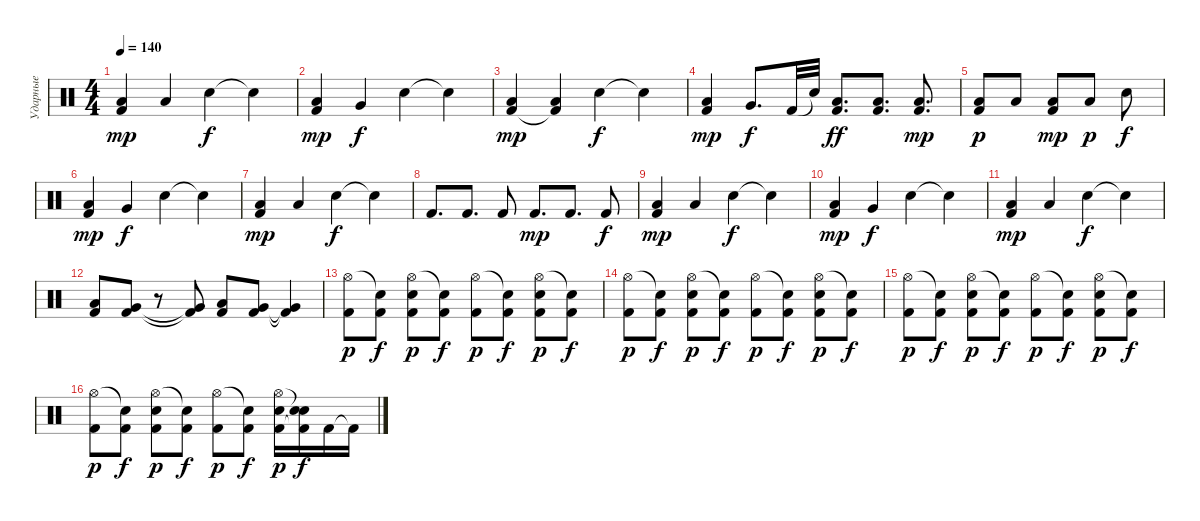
\track ("Ударные" "Ударные") {instrument percussion}
\staff {score}
\articulation defaults
\ts (4 4)
\tempo 140
\clef neutral
\ks c
("Low Floor Tom (hit)" "Kick (hit) 2").4{dy mp} "Low Tom (hit)".4 "Electric Snare (hit)".4{dy f} "Electric Snare (hit)"{t}.4 |
("Low Floor Tom (hit)" "Kick (hit) 2").4{dy mp} "Very Low Tom (hit)".4{dy f} "Electric Snare (hit)".4 "Electric Snare (hit)"{t}.4 |
("Low Floor Tom (hit)" "Kick (hit) 2").4{dy mp} ("Low Tom (hit)" "Kick (hit) 2"{t}).4 "Electric Snare (hit)".4{dy f} "Electric Snare (hit)"{t}.4 |
("Low Floor Tom (hit)" "Kick (hit) 2").4{dy mp} "Very Low Tom (hit)".8{d dy f} "Kick (hit) 2".32 "Electric Snare (hit)"{t}.32 ("Low Floor Tom (hit)" "Kick (hit) 2").8{d dy ff} ("Low Floor Tom (hit)" "Kick (hit) 2").8{d} ("Low Floor Tom (hit)" "Kick (hit) 2").8{d dy mp} |
("Low Floor Tom (hit)" "Kick (hit) 2").8{dy p} "Low Tom (hit)".8 ("Kick (hit) 2" "Low Floor Tom (hit)").8{dy mp} "Low Tom (hit)".8{dy p} "Electric Snare (hit)".8{dy f} |
("Low Floor Tom (hit)" "Kick (hit) 2").4{dy mp} "Very Low Tom (hit)".4{dy f} "Electric Snare (hit)".4 "Electric Snare (hit)"{t}.4 |
("Low Floor Tom (hit)" "Kick (hit) 2").4{dy mp} "Low Tom (hit)".4 "Electric Snare (hit)".4{dy f} "Electric Snare (hit)"{t}.4 |
"Kick (hit) 2".8{d} "Kick (hit) 2".8{d} "Kick (hit) 2".8 "Kick (hit) 2".8{d dy mp} "Kick (hit) 2".8{d} "Kick (hit) 2".8{dy f} |
("Low Floor Tom (hit)" "Kick (hit) 2").4{dy mp} "Low Tom (hit)".4 "Electric Snare (hit)".4{dy f} "Electric Snare (hit)"{t}.4 |
("Low Floor Tom (hit)" "Kick (hit) 2").4{dy mp} "Very Low Tom (hit)".4{dy f} "Electric Snare (hit)".4 "Electric Snare (hit)"{t}.4 |
("Low Floor Tom (hit)" "Kick (hit) 2").4{dy mp} "Low Tom (hit)".4 "Electric Snare (hit)".4{dy f} "Electric Snare (hit)"{t}.4 |
("Low Floor Tom (hit)" "Kick (hit) 2").8 ("Very Low Tom (hit)" "Kick (hit) 2").8 r.8 ("Very Low Tom (hit)"{t} "Kick (hit) 2"{t}).8 ("Low Floor Tom (hit)" "Kick (hit) 2").8 ("Very Low Tom (hit)" "Kick (hit) 2").8 ("Very Low Tom (hit)"{t} "Kick (hit) 2"{t}).4 |
("Hi-Hat (open)" "Kick (hit) 2").8{dy p} ("Snare (hit)"{t} "Kick (hit) 2").8{dy f} ("Hi-Hat (open)" "Electric Snare (hit)" "Kick (hit) 2").8{dy p} ("Snare (hit)"{t} "Kick (hit) 2").8{dy f} ("Hi-Hat (open)" "Kick (hit) 2").8{dy p} ("Snare (hit)"{t} "Kick (hit) 2").8{dy f} ("Hi-Hat (open)" "Electric Snare (hit)" "Kick (hit) 2").8{dy p} ("Snare (hit)"{t} "Kick (hit) 2").8{dy f} |
("Hi-Hat (open)" "Kick (hit) 2").8{dy p} ("Snare (hit)"{t} "Kick (hit) 2").8{dy f} ("Hi-Hat (open)" "Electric Snare (hit)" "Kick (hit) 2").8{dy p} ("Snare (hit)"{t} "Kick (hit) 2").8{dy f} ("Hi-Hat (open)" "Kick (hit) 2").8{dy p} ("Snare (hit)"{t} "Kick (hit) 2").8{dy f} ("Hi-Hat (open)" "Electric Snare (hit)" "Kick (hit) 2").8{dy p} ("Snare (hit)"{t} "Kick (hit) 2").8{dy f} |
("Hi-Hat (open)" "Kick (hit) 2").8{dy p} ("Snare (hit)"{t} "Kick (hit) 2").8{dy f} ("Hi-Hat (open)" "Electric Snare (hit)" "Kick (hit) 2").8{dy p} ("Snare (hit)"{t} "Kick (hit) 2").8{dy f} ("Hi-Hat (open)" "Kick (hit) 2").8{dy p} ("Snare (hit)"{t} "Kick (hit) 2").8{dy f} ("Hi-Hat (open)" "Electric Snare (hit)" "Kick (hit) 2").8{dy p} ("Snare (hit)"{t} "Kick (hit) 2").8{dy f} |
("Hi-Hat (open)" "Kick (hit) 2").8{dy p} ("Snare (hit)"{t} "Kick (hit) 2").8{dy f} ("Hi-Hat (open)" "Electric Snare (hit)" "Kick (hit) 2").8{dy p} ("Snare (hit)"{t} "Kick (hit) 2").8{dy f} ("Hi-Hat (open)" "Kick (hit) 2").8{dy p} ("Snare (hit)"{t} "Kick (hit) 2").8{dy f} ("Hi-Hat (open)" "Electric Snare (hit)" "Kick (hit) 2").16{dy p} ("Snare (hit)"{t} "Electric Snare (hit)" "Kick (hit) 2"{t}).16{dy f} "Kick (hit) 2".16 "Kick (hit) 2"{t}.16
